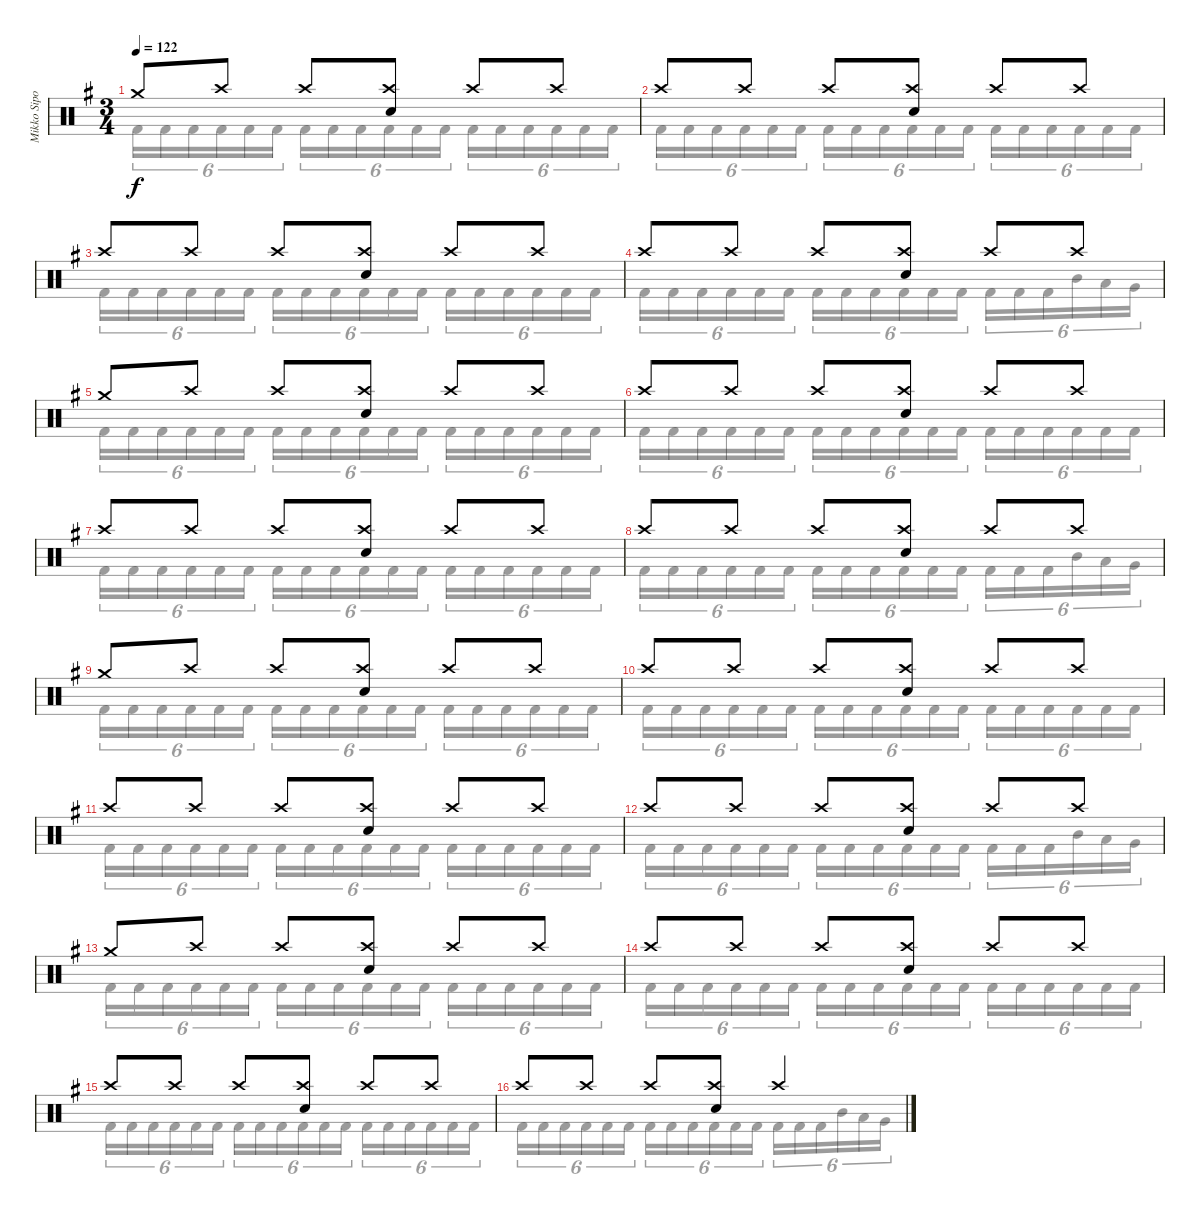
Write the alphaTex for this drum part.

\track ("Mikko Sipola - drums" "Mikko Sipo") {instrument percussion}
\staff {score}
\articulation defaults
\voice
\ts (3 4)
\tempo 122
\clef neutral
\ks eminor "Crash medium (hit)".8{dy f} "Crash high (hit)".8 "Crash high (hit)".8
("Snare (hit) 2" "Crash high (hit)").8 "Crash high (hit)".8 "Crash high (hit)".8 |
"Crash high (hit)".8 "Crash high (hit)".8 "Crash high (hit)".8 ("Snare (hit) 2" "Crash high (hit)").8 "Crash high (hit)".8 "Crash high (hit)".8 |
"Crash high (hit)".8 "Crash high (hit)".8 "Crash high (hit)".8 ("Snare (hit) 2" "Crash high (hit)").8 "Crash high (hit)".8 "Crash high (hit)".8 |
"Crash high (hit)".8 "Crash high (hit)".8 "Crash high (hit)".8 ("Snare (hit) 2" "Crash high (hit)").8 "Crash high (hit)".8 "Crash high (hit)".8 |
"Crash medium (hit)".8 "Crash high (hit)".8 "Crash high (hit)".8 ("Snare (hit) 2" "Crash high (hit)").8 "Crash high (hit)".8 "Crash high (hit)".8 |
"Crash high (hit)".8 "Crash high (hit)".8 "Crash high (hit)".8 ("Snare (hit) 2" "Crash high (hit)").8 "Crash high (hit)".8 "Crash high (hit)".8 |
"Crash high (hit)".8 "Crash high (hit)".8 "Crash high (hit)".8 ("Snare (hit) 2" "Crash high (hit)").8 "Crash high (hit)".8 "Crash high (hit)".8 |
"Crash high (hit)".8 "Crash high (hit)".8 "Crash high (hit)".8 ("Snare (hit) 2" "Crash high (hit)").8 "Crash high (hit)".8 "Crash high (hit)".8 |
"Crash medium (hit)".8 "Crash high (hit)".8 "Crash high (hit)".8 ("Snare (hit) 2" "Crash high (hit)").8 "Crash high (hit)".8 "Crash high (hit)".8 |
"Crash high (hit)".8 "Crash high (hit)".8 "Crash high (hit)".8 ("Snare (hit) 2" "Crash high (hit)").8 "Crash high (hit)".8 "Crash high (hit)".8 |
"Crash high (hit)".8 "Crash high (hit)".8 "Crash high (hit)".8 ("Snare (hit) 2" "Crash high (hit)").8 "Crash high (hit)".8 "Crash high (hit)".8 |
"Crash high (hit)".8 "Crash high (hit)".8 "Crash high (hit)".8 ("Snare (hit) 2" "Crash high (hit)").8 "Crash high (hit)".8 "Crash high (hit)".8 |
"Crash medium (hit)".8 "Crash high (hit)".8 "Crash high (hit)".8 ("Snare (hit) 2" "Crash high (hit)").8 "Crash high (hit)".8 "Crash high (hit)".8 |
"Crash high (hit)".8 "Crash high (hit)".8 "Crash high (hit)".8 ("Snare (hit) 2" "Crash high (hit)").8 "Crash high (hit)".8 "Crash high (hit)".8 |
"Crash high (hit)".8 "Crash high (hit)".8 "Crash high (hit)".8 ("Snare (hit) 2" "Crash high (hit)").8 "Crash high (hit)".8 "Crash high (hit)".8 |
"Crash high (hit)".8 "Crash high (hit)".8 "Crash high (hit)".8 ("Snare (hit) 2" "Crash high (hit)").8 "Crash high (hit)".4
\voice
\clef neutral
\ottava regular
\simile none
\ks eminor "Kick (hit) 2".16{tu (6 4) dy f} "Kick (hit) 2".16{tu (6 4)} "Kick (hit) 2".16{tu (6 4)} "Kick (hit) 2".16{tu (6 4)} "Kick (hit) 2".16{tu (6 4)} "Kick (hit) 2".16{tu (6 4)} "Kick (hit) 2".16{tu (6 4)} "Kick (hit) 2".16{tu (6 4)} "Kick (hit) 2".16{tu (6 4)} "Kick (hit) 2".16{tu (6 4)} "Kick (hit) 2".16{tu (6 4)} "Kick (hit) 2".16{tu (6 4)} "Kick (hit) 2".16{tu (6 4)} "Kick (hit) 2".16{tu (6 4)} "Kick (hit) 2".16{tu (6 4)} "Kick (hit) 2".16{tu (6 4)} "Kick (hit) 2".16{tu (6 4)} "Kick (hit) 2".16{tu (6 4)}
|
"Kick (hit) 2".16{tu (6 4)} "Kick (hit) 2".16{tu (6 4)} "Kick (hit) 2".16{tu (6 4)} "Kick (hit) 2".16{tu (6 4)} "Kick (hit) 2".16{tu (6 4)} "Kick (hit) 2".16{tu (6 4)} "Kick (hit) 2".16{tu (6 4)} "Kick (hit) 2".16{tu (6 4)} "Kick (hit) 2".16{tu (6 4)} "Kick (hit) 2".16{tu (6 4)} "Kick (hit) 2".16{tu (6 4)} "Kick (hit) 2".16{tu (6 4)} "Kick (hit) 2".16{tu (6 4)} "Kick (hit) 2".16{tu (6 4)} "Kick (hit) 2".16{tu (6 4)} "Kick (hit) 2".16{tu (6 4)} "Kick (hit) 2".16{tu (6 4)} "Kick (hit) 2".16{tu (6 4)} |
"Kick (hit) 2".16{tu (6 4)} "Kick (hit) 2".16{tu (6 4)} "Kick (hit) 2".16{tu (6 4)} "Kick (hit) 2".16{tu (6 4)} "Kick (hit) 2".16{tu (6 4)} "Kick (hit) 2".16{tu (6 4)} "Kick (hit) 2".16{tu (6 4)} "Kick (hit) 2".16{tu (6 4)} "Kick (hit) 2".16{tu (6 4)} "Kick (hit) 2".16{tu (6 4)} "Kick (hit) 2".16{tu (6 4)} "Kick (hit) 2".16{tu (6 4)} "Kick (hit) 2".16{tu (6 4)} "Kick (hit) 2".16{tu (6 4)} "Kick (hit) 2".16{tu (6 4)} "Kick (hit) 2".16{tu (6 4)} "Kick (hit) 2".16{tu (6 4)} "Kick (hit) 2".16{tu (6 4)} |
"Kick (hit) 2".16{tu (6 4)} "Kick (hit) 2".16{tu (6 4)} "Kick (hit) 2".16{tu (6 4)} "Kick (hit) 2".16{tu (6 4)} "Kick (hit) 2".16{tu (6 4)} "Kick (hit) 2".16{tu (6 4)} "Kick (hit) 2".16{tu (6 4)} "Kick (hit) 2".16{tu (6 4)} "Kick (hit) 2".16{tu (6 4)} "Kick (hit) 2".16{tu (6 4)} "Kick (hit) 2".16{tu (6 4)} "Kick (hit) 2".16{tu (6 4)} "Kick (hit) 2".16{tu (6 4)} "Kick (hit) 2".16{tu (6 4)} "Kick (hit) 2".16{tu (6 4)} "Mid Tom (hit)".16{tu (6 4)} "Low Tom (hit)".16{tu (6 4)} "Very Low Tom (hit)".16{tu (6 4)} |
"Kick (hit) 2".16{tu (6 4)} "Kick (hit) 2".16{tu (6 4)} "Kick (hit) 2".16{tu (6 4)} "Kick (hit) 2".16{tu (6 4)} "Kick (hit) 2".16{tu (6 4)} "Kick (hit) 2".16{tu (6 4)} "Kick (hit) 2".16{tu (6 4)} "Kick (hit) 2".16{tu (6 4)} "Kick (hit) 2".16{tu (6 4)} "Kick (hit) 2".16{tu (6 4)} "Kick (hit) 2".16{tu (6 4)} "Kick (hit) 2".16{tu (6 4)} "Kick (hit) 2".16{tu (6 4)} "Kick (hit) 2".16{tu (6 4)} "Kick (hit) 2".16{tu (6 4)} "Kick (hit) 2".16{tu (6 4)} "Kick (hit) 2".16{tu (6 4)} "Kick (hit) 2".16{tu (6 4)} |
"Kick (hit) 2".16{tu (6 4)} "Kick (hit) 2".16{tu (6 4)} "Kick (hit) 2".16{tu (6 4)} "Kick (hit) 2".16{tu (6 4)} "Kick (hit) 2".16{tu (6 4)} "Kick (hit) 2".16{tu (6 4)} "Kick (hit) 2".16{tu (6 4)} "Kick (hit) 2".16{tu (6 4)} "Kick (hit) 2".16{tu (6 4)} "Kick (hit) 2".16{tu (6 4)} "Kick (hit) 2".16{tu (6 4)} "Kick (hit) 2".16{tu (6 4)} "Kick (hit) 2".16{tu (6 4)} "Kick (hit) 2".16{tu (6 4)} "Kick (hit) 2".16{tu (6 4)} "Kick (hit) 2".16{tu (6 4)} "Kick (hit) 2".16{tu (6 4)} "Kick (hit) 2".16{tu (6 4)} |
"Kick (hit) 2".16{tu (6 4)} "Kick (hit) 2".16{tu (6 4)} "Kick (hit) 2".16{tu (6 4)} "Kick (hit) 2".16{tu (6 4)} "Kick (hit) 2".16{tu (6 4)} "Kick (hit) 2".16{tu (6 4)} "Kick (hit) 2".16{tu (6 4)} "Kick (hit) 2".16{tu (6 4)} "Kick (hit) 2".16{tu (6 4)} "Kick (hit) 2".16{tu (6 4)} "Kick (hit) 2".16{tu (6 4)} "Kick (hit) 2".16{tu (6 4)} "Kick (hit) 2".16{tu (6 4)} "Kick (hit) 2".16{tu (6 4)} "Kick (hit) 2".16{tu (6 4)} "Kick (hit) 2".16{tu (6 4)} "Kick (hit) 2".16{tu (6 4)} "Kick (hit) 2".16{tu (6 4)} |
"Kick (hit) 2".16{tu (6 4)} "Kick (hit) 2".16{tu (6 4)} "Kick (hit) 2".16{tu (6 4)} "Kick (hit) 2".16{tu (6 4)} "Kick (hit) 2".16{tu (6 4)} "Kick (hit) 2".16{tu (6 4)} "Kick (hit) 2".16{tu (6 4)} "Kick (hit) 2".16{tu (6 4)} "Kick (hit) 2".16{tu (6 4)} "Kick (hit) 2".16{tu (6 4)} "Kick (hit) 2".16{tu (6 4)} "Kick (hit) 2".16{tu (6 4)} "Kick (hit) 2".16{tu (6 4)} "Kick (hit) 2".16{tu (6 4)} "Kick (hit) 2".16{tu (6 4)} "Mid Tom (hit)".16{tu (6 4)} "Low Tom (hit)".16{tu (6 4)} "Very Low Tom (hit)".16{tu (6 4)} |
"Kick (hit) 2".16{tu (6 4)} "Kick (hit) 2".16{tu (6 4)} "Kick (hit) 2".16{tu (6 4)} "Kick (hit) 2".16{tu (6 4)} "Kick (hit) 2".16{tu (6 4)} "Kick (hit) 2".16{tu (6 4)} "Kick (hit) 2".16{tu (6 4)} "Kick (hit) 2".16{tu (6 4)} "Kick (hit) 2".16{tu (6 4)} "Kick (hit) 2".16{tu (6 4)} "Kick (hit) 2".16{tu (6 4)} "Kick (hit) 2".16{tu (6 4)} "Kick (hit) 2".16{tu (6 4)} "Kick (hit) 2".16{tu (6 4)} "Kick (hit) 2".16{tu (6 4)} "Kick (hit) 2".16{tu (6 4)} "Kick (hit) 2".16{tu (6 4)} "Kick (hit) 2".16{tu (6 4)} |
"Kick (hit) 2".16{tu (6 4)} "Kick (hit) 2".16{tu (6 4)} "Kick (hit) 2".16{tu (6 4)} "Kick (hit) 2".16{tu (6 4)} "Kick (hit) 2".16{tu (6 4)} "Kick (hit) 2".16{tu (6 4)} "Kick (hit) 2".16{tu (6 4)} "Kick (hit) 2".16{tu (6 4)} "Kick (hit) 2".16{tu (6 4)} "Kick (hit) 2".16{tu (6 4)} "Kick (hit) 2".16{tu (6 4)} "Kick (hit) 2".16{tu (6 4)} "Kick (hit) 2".16{tu (6 4)} "Kick (hit) 2".16{tu (6 4)} "Kick (hit) 2".16{tu (6 4)} "Kick (hit) 2".16{tu (6 4)} "Kick (hit) 2".16{tu (6 4)} "Kick (hit) 2".16{tu (6 4)} |
"Kick (hit) 2".16{tu (6 4)} "Kick (hit) 2".16{tu (6 4)} "Kick (hit) 2".16{tu (6 4)} "Kick (hit) 2".16{tu (6 4)} "Kick (hit) 2".16{tu (6 4)} "Kick (hit) 2".16{tu (6 4)} "Kick (hit) 2".16{tu (6 4)} "Kick (hit) 2".16{tu (6 4)} "Kick (hit) 2".16{tu (6 4)} "Kick (hit) 2".16{tu (6 4)} "Kick (hit) 2".16{tu (6 4)} "Kick (hit) 2".16{tu (6 4)} "Kick (hit) 2".16{tu (6 4)} "Kick (hit) 2".16{tu (6 4)} "Kick (hit) 2".16{tu (6 4)} "Kick (hit) 2".16{tu (6 4)} "Kick (hit) 2".16{tu (6 4)} "Kick (hit) 2".16{tu (6 4)} |
"Kick (hit) 2".16{tu (6 4)} "Kick (hit) 2".16{tu (6 4)} "Kick (hit) 2".16{tu (6 4)} "Kick (hit) 2".16{tu (6 4)} "Kick (hit) 2".16{tu (6 4)} "Kick (hit) 2".16{tu (6 4)} "Kick (hit) 2".16{tu (6 4)} "Kick (hit) 2".16{tu (6 4)} "Kick (hit) 2".16{tu (6 4)} "Kick (hit) 2".16{tu (6 4)} "Kick (hit) 2".16{tu (6 4)} "Kick (hit) 2".16{tu (6 4)} "Kick (hit) 2".16{tu (6 4)} "Kick (hit) 2".16{tu (6 4)} "Kick (hit) 2".16{tu (6 4)} "Mid Tom (hit)".16{tu (6 4)} "Low Tom (hit)".16{tu (6 4)} "Very Low Tom (hit)".16{tu (6 4)} |
"Kick (hit) 2".16{tu (6 4)} "Kick (hit) 2".16{tu (6 4)} "Kick (hit) 2".16{tu (6 4)} "Kick (hit) 2".16{tu (6 4)} "Kick (hit) 2".16{tu (6 4)} "Kick (hit) 2".16{tu (6 4)} "Kick (hit) 2".16{tu (6 4)} "Kick (hit) 2".16{tu (6 4)} "Kick (hit) 2".16{tu (6 4)} "Kick (hit) 2".16{tu (6 4)} "Kick (hit) 2".16{tu (6 4)} "Kick (hit) 2".16{tu (6 4)} "Kick (hit) 2".16{tu (6 4)} "Kick (hit) 2".16{tu (6 4)} "Kick (hit) 2".16{tu (6 4)} "Kick (hit) 2".16{tu (6 4)} "Kick (hit) 2".16{tu (6 4)} "Kick (hit) 2".16{tu (6 4)} |
"Kick (hit) 2".16{tu (6 4)} "Kick (hit) 2".16{tu (6 4)} "Kick (hit) 2".16{tu (6 4)} "Kick (hit) 2".16{tu (6 4)} "Kick (hit) 2".16{tu (6 4)} "Kick (hit) 2".16{tu (6 4)} "Kick (hit) 2".16{tu (6 4)} "Kick (hit) 2".16{tu (6 4)} "Kick (hit) 2".16{tu (6 4)} "Kick (hit) 2".16{tu (6 4)} "Kick (hit) 2".16{tu (6 4)} "Kick (hit) 2".16{tu (6 4)} "Kick (hit) 2".16{tu (6 4)} "Kick (hit) 2".16{tu (6 4)} "Kick (hit) 2".16{tu (6 4)} "Kick (hit) 2".16{tu (6 4)} "Kick (hit) 2".16{tu (6 4)} "Kick (hit) 2".16{tu (6 4)} |
"Kick (hit) 2".16{tu (6 4)} "Kick (hit) 2".16{tu (6 4)} "Kick (hit) 2".16{tu (6 4)} "Kick (hit) 2".16{tu (6 4)} "Kick (hit) 2".16{tu (6 4)} "Kick (hit) 2".16{tu (6 4)} "Kick (hit) 2".16{tu (6 4)} "Kick (hit) 2".16{tu (6 4)} "Kick (hit) 2".16{tu (6 4)} "Kick (hit) 2".16{tu (6 4)} "Kick (hit) 2".16{tu (6 4)} "Kick (hit) 2".16{tu (6 4)} "Kick (hit) 2".16{tu (6 4)} "Kick (hit) 2".16{tu (6 4)} "Kick (hit) 2".16{tu (6 4)} "Kick (hit) 2".16{tu (6 4)} "Kick (hit) 2".16{tu (6 4)} "Kick (hit) 2".16{tu (6 4)} |
"Kick (hit) 2".16{tu (6 4)} "Kick (hit) 2".16{tu (6 4)} "Kick (hit) 2".16{tu (6 4)} "Kick (hit) 2".16{tu (6 4)} "Kick (hit) 2".16{tu (6 4)} "Kick (hit) 2".16{tu (6 4)} "Kick (hit) 2".16{tu (6 4)} "Kick (hit) 2".16{tu (6 4)} "Kick (hit) 2".16{tu (6 4)} "Kick (hit) 2".16{tu (6 4)} "Kick (hit) 2".16{tu (6 4)} "Kick (hit) 2".16{tu (6 4)} "Kick (hit) 2".16{tu (6 4)} "Kick (hit) 2".16{tu (6 4)} "Kick (hit) 2".16{tu (6 4)} "Mid Tom (hit)".16{tu (6 4)} "Low Tom (hit)".16{tu (6 4)} "Very Low Tom (hit)".16{tu (6 4)}
